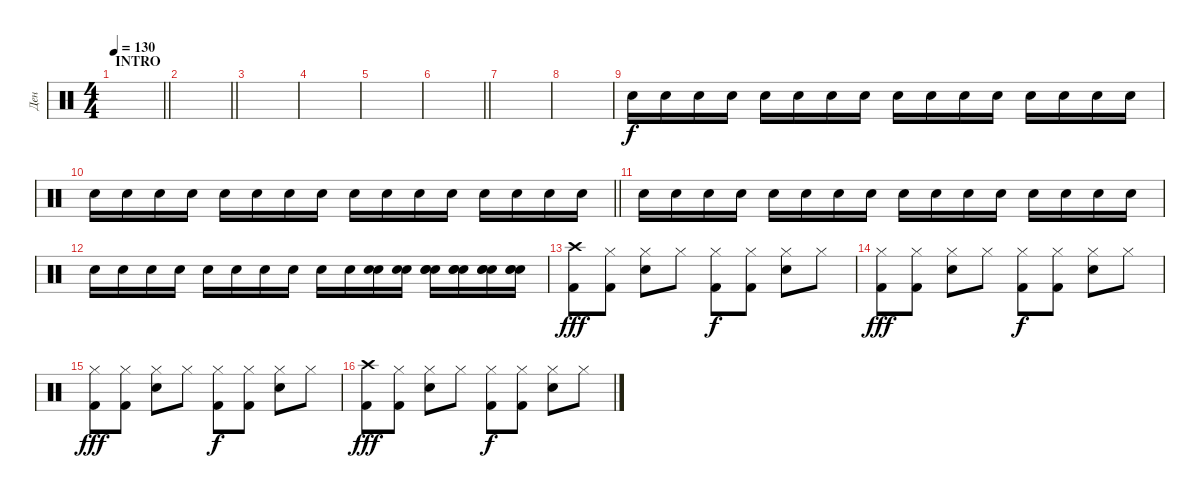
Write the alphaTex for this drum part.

\track ("Ден" "Ден") {instrument percussion}
\staff {score}
\articulation defaults
\ts (4 4)
\section ("" "INTRO")
\tempo 130
\clef neutral
\barLineRight lightlight
\ks c
|
\barLineRight lightlight
|
\section ("" "")
|
|
|
\barLineRight lightlight
|
|
|
"Snare (hit) 2".16{volume 16} "Snare (hit) 2".16 "Snare (hit) 2".16 "Snare (hit) 2".16 "Snare (hit) 2".16 "Snare (hit) 2".16 "Snare (hit) 2".16 "Snare (hit) 2".16 "Snare (hit) 2".16 "Snare (hit) 2".16 "Snare (hit) 2".16 "Snare (hit) 2".16 "Snare (hit) 2".16 "Snare (hit) 2".16 "Snare (hit) 2".16 "Snare (hit) 2".16 |
\barLineRight lightlight "Snare (hit) 2".16 "Snare (hit) 2".16 "Snare (hit) 2".16 "Snare (hit) 2".16 "Snare (hit) 2".16 "Snare (hit) 2".16 "Snare (hit) 2".16 "Snare (hit) 2".16 "Snare (hit) 2".16 "Snare (hit) 2".16 "Snare (hit) 2".16 "Snare (hit) 2".16 "Snare (hit) 2".16 "Snare (hit) 2".16 "Snare (hit) 2".16 "Snare (hit) 2".16
|
"Snare (hit) 2".16 "Snare (hit) 2".16 "Snare (hit) 2".16 "Snare (hit) 2".16 "Snare (hit) 2".16 "Snare (hit) 2".16 "Snare (hit) 2".16 "Snare (hit) 2".16 "Snare (hit) 2".16 "Snare (hit) 2".16 "Snare (hit) 2".16 "Snare (hit) 2".16 "Snare (hit) 2".16 "Snare (hit) 2".16 "Snare (hit) 2".16 "Snare (hit) 2".16 |
"Snare (hit) 2".16 "Snare (hit) 2".16 "Snare (hit) 2".16 "Snare (hit) 2".16 "Snare (hit) 2".16 "Snare (hit) 2".16 "Snare (hit) 2".16 "Snare (hit) 2".16 "Snare (hit) 2".16 "Snare (hit) 2".16 ("Snare (hit) 2" "Snare (hit) 2").16 ("Snare (hit) 2" "Snare (hit) 2").16 ("Snare (hit) 2" "Snare (hit) 2" "Snare (hit) 2").16 ("Snare (hit) 2" "Snare (hit) 2" "Snare (hit) 2").16 ("Snare (hit) 2" "Snare (hit) 2" "Snare (hit) 2").16 ("Snare (hit) 2" "Snare (hit) 2" "Snare (hit) 2").16 |
("Crash high (hit)" "Kick (hit) 2").8{dy fff} ("Hi-Hat (closed)" "Kick (hit) 2").8 ("Hi-Hat (closed)" "Snare (hit) 2").8 "Hi-Hat (closed)".8 ("Hi-Hat (closed)" "Kick (hit) 2").8{dy f} ("Hi-Hat (closed)" "Kick (hit) 2").8 ("Hi-Hat (closed)" "Snare (hit) 2").8 "Hi-Hat (closed)".8 |
("Hi-Hat (closed)" "Kick (hit) 2").8{dy fff} ("Hi-Hat (closed)" "Kick (hit) 2").8 ("Hi-Hat (closed)" "Snare (hit) 2").8 "Hi-Hat (closed)".8 ("Hi-Hat (closed)" "Kick (hit) 2").8{dy f} ("Hi-Hat (closed)" "Kick (hit) 2").8 ("Hi-Hat (closed)" "Snare (hit) 2").8 "Hi-Hat (closed)".8 |
("Hi-Hat (closed)" "Kick (hit) 2").8{dy fff} ("Hi-Hat (closed)" "Kick (hit) 2").8 ("Hi-Hat (closed)" "Snare (hit) 2").8 "Hi-Hat (closed)".8 ("Hi-Hat (closed)" "Kick (hit) 2").8{dy f} ("Hi-Hat (closed)" "Kick (hit) 2").8 ("Hi-Hat (closed)" "Snare (hit) 2").8 "Hi-Hat (closed)".8 |
("Crash high (hit)" "Kick (hit) 2").8{dy fff} ("Hi-Hat (closed)" "Kick (hit) 2").8 ("Hi-Hat (closed)" "Snare (hit) 2").8 "Hi-Hat (closed)".8 ("Hi-Hat (closed)" "Kick (hit) 2").8{dy f} ("Hi-Hat (closed)" "Kick (hit) 2").8 ("Hi-Hat (closed)" "Snare (hit) 2").8 "Hi-Hat (closed)".8
